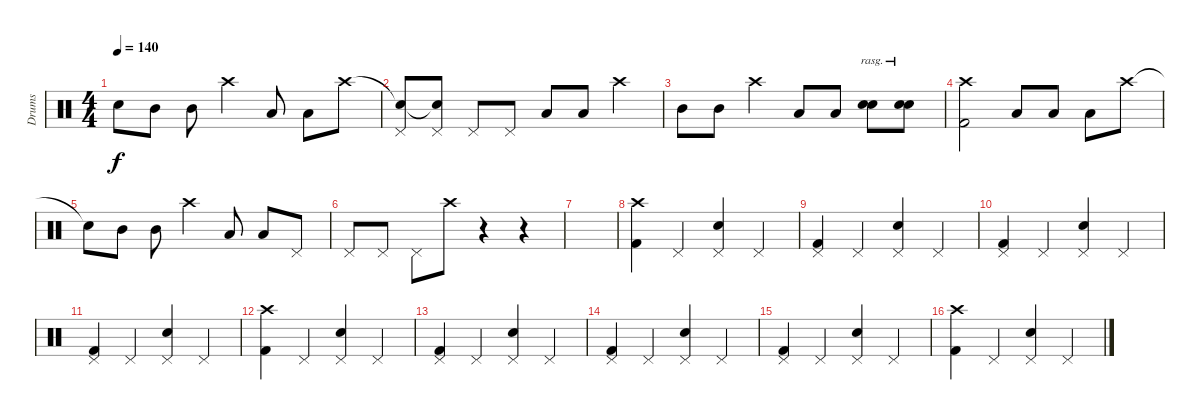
\track ("Drums" "Drums") {instrument percussion}
\staff {score}
\articulation defaults
\ts (4 4)
\tempo 140
\clef neutral
\ks c "Snare (hit)"{t}.8{dy f} "Mid Tom (hit)".8 "Mid Tom (hit)".8 "Crash high (hit)".4 "Low Floor Tom (hit)".8 "Low Floor Tom (hit)".8 "Crash high (hit)".8
|
("Snare (hit)"{t} "Pedal Hi-Hat (hit)").8 ("Snare (hit)"{t} "Pedal Hi-Hat (hit)").8 "Pedal Hi-Hat (hit)".8 "Pedal Hi-Hat (hit)".8 "Low Tom (hit)".8 "Low Tom (hit)".8 "Crash high (hit)".4 |
"Mid Tom (hit)".8 "Mid Tom (hit)".8 "Crash high (hit)".4 "Low Floor Tom (hit)".8 "Low Floor Tom (hit)".8 ("Snare (hit) 2" "Snare (hit) 2").8{bu 240 rasg ii} ("Snare (hit) 2" "Snare (hit) 2").8{bu 240 rasg ii} |
("Crash high (hit)" "Kick (hit) 2").2 "Low Tom (hit)".8 "Low Tom (hit)".8 "Low Tom (hit)".8 "Crash high (hit)".8 |
"Snare (hit)"{t}.8 "Mid Tom (hit)".8 "Mid Tom (hit)".8 "Crash high (hit)".4 "Low Floor Tom (hit)".8 "Low Floor Tom (hit)".8 "Pedal Hi-Hat (hit)".8 |
"Pedal Hi-Hat (hit)".8 "Pedal Hi-Hat (hit)".8 "Pedal Hi-Hat (hit)".8 "Crash high (hit)".8 r.4 r.4 |
|
("Crash high (hit)" "Kick (hit) 2").4 "Pedal Hi-Hat (hit)".4 ("Pedal Hi-Hat (hit)" "Snare (hit) 2").4 "Pedal Hi-Hat (hit)".4 |
("Pedal Hi-Hat (hit)" "Kick (hit) 2").4 "Pedal Hi-Hat (hit)".4 ("Pedal Hi-Hat (hit)" "Snare (hit) 2").4 "Pedal Hi-Hat (hit)".4 |
("Pedal Hi-Hat (hit)" "Kick (hit) 2").4 "Pedal Hi-Hat (hit)".4 ("Pedal Hi-Hat (hit)" "Snare (hit) 2").4 "Pedal Hi-Hat (hit)".4 |
("Pedal Hi-Hat (hit)" "Kick (hit) 2").4 "Pedal Hi-Hat (hit)".4 ("Pedal Hi-Hat (hit)" "Snare (hit) 2").4 "Pedal Hi-Hat (hit)".4 |
("Crash high (hit)" "Kick (hit) 2").4 "Pedal Hi-Hat (hit)".4 ("Pedal Hi-Hat (hit)" "Snare (hit) 2").4 "Pedal Hi-Hat (hit)".4 |
("Pedal Hi-Hat (hit)" "Kick (hit) 2").4 "Pedal Hi-Hat (hit)".4 ("Pedal Hi-Hat (hit)" "Snare (hit) 2").4 "Pedal Hi-Hat (hit)".4 |
("Pedal Hi-Hat (hit)" "Kick (hit) 2").4 "Pedal Hi-Hat (hit)".4 ("Pedal Hi-Hat (hit)" "Snare (hit) 2").4 "Pedal Hi-Hat (hit)".4 |
("Pedal Hi-Hat (hit)" "Kick (hit) 2").4 "Pedal Hi-Hat (hit)".4 ("Pedal Hi-Hat (hit)" "Snare (hit) 2").4 "Pedal Hi-Hat (hit)".4 |
("Crash high (hit)" "Kick (hit) 2").4 "Pedal Hi-Hat (hit)".4 ("Pedal Hi-Hat (hit)" "Snare (hit) 2").4 "Pedal Hi-Hat (hit)".4
